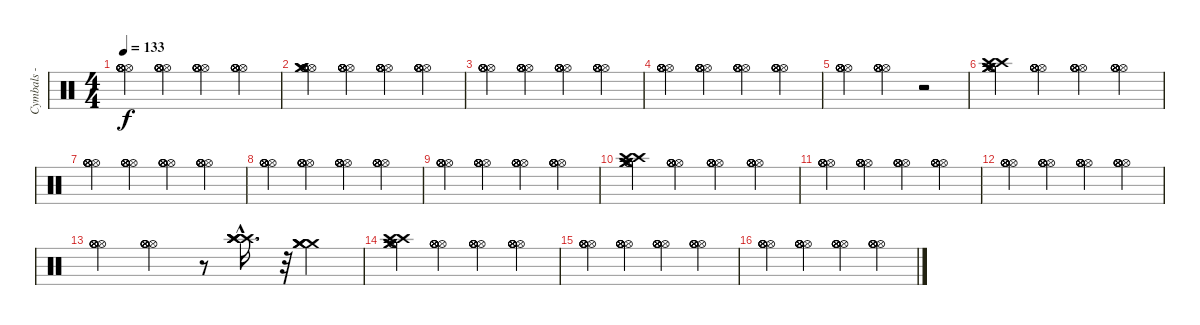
\track ("Cymbals - Joe Daniels" "Cymbals - ") {instrument percussion}
\staff {score}
\articulation defaults
\ts (4 4)
\tempo 133
\clef neutral
\ks c
("Hi-Hat (open)" "Hi-Hat (open)" "Hi-Hat (open)" "Hi-Hat (open)" "Hi-Hat (open)" "Hi-Hat (open)").4{dy f} ("Hi-Hat (open)" "Hi-Hat (open)" "Hi-Hat (open)" "Hi-Hat (open)" "Hi-Hat (open)" "Hi-Hat (open)").4 ("Hi-Hat (open)" "Hi-Hat (open)" "Hi-Hat (open)" "Hi-Hat (open)" "Hi-Hat (open)" "Hi-Hat (open)").4 ("Hi-Hat (open)" "Hi-Hat (open)" "Hi-Hat (open)" "Hi-Hat (open)" "Hi-Hat (open)" "Hi-Hat (open)").4 |
("Hi-Hat (open)" "Crash medium (hit)" "Crash medium (hit)" "Hi-Hat (open)" "Hi-Hat (open)" "Hi-Hat (open)").4 ("Hi-Hat (open)" "Hi-Hat (open)" "Hi-Hat (open)" "Hi-Hat (open)" "Hi-Hat (open)" "Hi-Hat (open)").4 ("Hi-Hat (open)" "Hi-Hat (open)" "Hi-Hat (open)" "Hi-Hat (open)" "Hi-Hat (open)" "Hi-Hat (open)").4 ("Hi-Hat (open)" "Hi-Hat (open)" "Hi-Hat (open)" "Hi-Hat (open)" "Hi-Hat (open)" "Hi-Hat (open)").4 |
("Hi-Hat (open)" "Hi-Hat (open)" "Hi-Hat (open)" "Hi-Hat (open)" "Hi-Hat (open)" "Hi-Hat (open)").4 ("Hi-Hat (open)" "Hi-Hat (open)" "Hi-Hat (open)" "Hi-Hat (open)" "Hi-Hat (open)" "Hi-Hat (open)").4 ("Hi-Hat (open)" "Hi-Hat (open)" "Hi-Hat (open)" "Hi-Hat (open)" "Hi-Hat (open)" "Hi-Hat (open)").4 ("Hi-Hat (open)" "Hi-Hat (open)" "Hi-Hat (open)" "Hi-Hat (open)" "Hi-Hat (open)" "Hi-Hat (open)").4 |
("Hi-Hat (open)" "Hi-Hat (open)" "Hi-Hat (open)" "Hi-Hat (open)" "Hi-Hat (open)" "Hi-Hat (open)").4 ("Hi-Hat (open)" "Hi-Hat (open)" "Hi-Hat (open)" "Hi-Hat (open)" "Hi-Hat (open)" "Hi-Hat (open)").4 ("Hi-Hat (open)" "Hi-Hat (open)" "Hi-Hat (open)" "Hi-Hat (open)" "Hi-Hat (open)" "Hi-Hat (open)").4 ("Hi-Hat (open)" "Hi-Hat (open)" "Hi-Hat (open)" "Hi-Hat (open)" "Hi-Hat (open)" "Hi-Hat (open)").4 |
("Hi-Hat (open)" "Hi-Hat (open)" "Hi-Hat (open)" "Hi-Hat (open)" "Hi-Hat (open)" "Hi-Hat (open)").4 ("Hi-Hat (open)" "Hi-Hat (open)" "Hi-Hat (open)" "Hi-Hat (open)" "Hi-Hat (open)" "Hi-Hat (open)").4 r.2 |
("Hi-Hat (open)" "Crash medium (hit)" "Crash medium (hit)" "Crash high (hit)" "Crash high (hit)" "Hi-Hat (open)").4 ("Hi-Hat (open)" "Hi-Hat (open)" "Hi-Hat (open)" "Hi-Hat (open)" "Hi-Hat (open)" "Hi-Hat (open)").4 ("Hi-Hat (open)" "Hi-Hat (open)" "Hi-Hat (open)" "Hi-Hat (open)" "Hi-Hat (open)" "Hi-Hat (open)").4 ("Hi-Hat (open)" "Hi-Hat (open)" "Hi-Hat (open)" "Hi-Hat (open)" "Hi-Hat (open)" "Hi-Hat (open)").4 |
("Hi-Hat (open)" "Hi-Hat (open)" "Hi-Hat (open)" "Hi-Hat (open)" "Hi-Hat (open)" "Hi-Hat (open)").4 ("Hi-Hat (open)" "Hi-Hat (open)" "Hi-Hat (open)" "Hi-Hat (open)" "Hi-Hat (open)" "Hi-Hat (open)").4 ("Hi-Hat (open)" "Hi-Hat (open)" "Hi-Hat (open)" "Hi-Hat (open)" "Hi-Hat (open)" "Hi-Hat (open)").4 ("Hi-Hat (open)" "Hi-Hat (open)" "Hi-Hat (open)" "Hi-Hat (open)" "Hi-Hat (open)" "Hi-Hat (open)").4 |
("Hi-Hat (open)" "Hi-Hat (open)" "Hi-Hat (open)" "Hi-Hat (open)" "Hi-Hat (open)" "Hi-Hat (open)").4 ("Hi-Hat (open)" "Hi-Hat (open)" "Hi-Hat (open)" "Hi-Hat (open)" "Hi-Hat (open)" "Hi-Hat (open)").4 ("Hi-Hat (open)" "Hi-Hat (open)" "Hi-Hat (open)" "Hi-Hat (open)" "Hi-Hat (open)" "Hi-Hat (open)").4 ("Hi-Hat (open)" "Hi-Hat (open)" "Hi-Hat (open)" "Hi-Hat (open)" "Hi-Hat (open)" "Hi-Hat (open)").4 |
("Hi-Hat (open)" "Hi-Hat (open)" "Hi-Hat (open)" "Hi-Hat (open)" "Hi-Hat (open)" "Hi-Hat (open)").4 ("Hi-Hat (open)" "Hi-Hat (open)" "Hi-Hat (open)" "Hi-Hat (open)" "Hi-Hat (open)" "Hi-Hat (open)").4 ("Hi-Hat (open)" "Hi-Hat (open)" "Hi-Hat (open)" "Hi-Hat (open)" "Hi-Hat (open)" "Hi-Hat (open)").4 ("Hi-Hat (open)" "Hi-Hat (open)" "Hi-Hat (open)" "Hi-Hat (open)" "Hi-Hat (open)" "Hi-Hat (open)").4 |
("Hi-Hat (open)" "Crash medium (hit)" "Crash medium (hit)" "Crash high (hit)" "Crash high (hit)" "Hi-Hat (open)").4 ("Hi-Hat (open)" "Hi-Hat (open)" "Hi-Hat (open)" "Hi-Hat (open)" "Hi-Hat (open)" "Hi-Hat (open)").4 ("Hi-Hat (open)" "Hi-Hat (open)" "Hi-Hat (open)" "Hi-Hat (open)" "Hi-Hat (open)" "Hi-Hat (open)").4 ("Hi-Hat (open)" "Hi-Hat (open)" "Hi-Hat (open)" "Hi-Hat (open)" "Hi-Hat (open)" "Hi-Hat (open)").4 |
("Hi-Hat (open)" "Hi-Hat (open)" "Hi-Hat (open)" "Hi-Hat (open)" "Hi-Hat (open)" "Hi-Hat (open)").4 ("Hi-Hat (open)" "Hi-Hat (open)" "Hi-Hat (open)" "Hi-Hat (open)" "Hi-Hat (open)" "Hi-Hat (open)").4 ("Hi-Hat (open)" "Hi-Hat (open)" "Hi-Hat (open)" "Hi-Hat (open)" "Hi-Hat (open)" "Hi-Hat (open)").4 ("Hi-Hat (open)" "Hi-Hat (open)" "Hi-Hat (open)" "Hi-Hat (open)" "Hi-Hat (open)" "Hi-Hat (open)").4 |
("Hi-Hat (open)" "Hi-Hat (open)" "Hi-Hat (open)" "Hi-Hat (open)" "Hi-Hat (open)" "Hi-Hat (open)").4 ("Hi-Hat (open)" "Hi-Hat (open)" "Hi-Hat (open)" "Hi-Hat (open)" "Hi-Hat (open)" "Hi-Hat (open)").4 ("Hi-Hat (open)" "Hi-Hat (open)" "Hi-Hat (open)" "Hi-Hat (open)" "Hi-Hat (open)" "Hi-Hat (open)").4 ("Hi-Hat (open)" "Hi-Hat (open)" "Hi-Hat (open)" "Hi-Hat (open)" "Hi-Hat (open)" "Hi-Hat (open)").4 |
("Hi-Hat (open)" "Hi-Hat (open)" "Hi-Hat (open)" "Hi-Hat (open)" "Hi-Hat (open)" "Hi-Hat (open)").4 ("Hi-Hat (open)" "Hi-Hat (open)" "Hi-Hat (open)" "Hi-Hat (open)" "Hi-Hat (open)" "Hi-Hat (open)").4 r.8 ("Crash high (hit)"{hac} "Crash high (hit)"{hac} "Crash high (hit)"{hac} "Crash high (hit)"{hac}).16{d} r.32 ("Crash medium (hit)" "Crash medium (hit)" "Crash medium (hit)" "Crash medium (hit)").4 |
("Hi-Hat (open)" "Crash medium (hit)" "Crash medium (hit)" "Crash high (hit)" "Crash high (hit)" "Hi-Hat (open)").4 ("Hi-Hat (open)" "Hi-Hat (open)" "Hi-Hat (open)" "Hi-Hat (open)" "Hi-Hat (open)" "Hi-Hat (open)").4 ("Hi-Hat (open)" "Hi-Hat (open)" "Hi-Hat (open)" "Hi-Hat (open)" "Hi-Hat (open)" "Hi-Hat (open)").4 ("Hi-Hat (open)" "Hi-Hat (open)" "Hi-Hat (open)" "Hi-Hat (open)" "Hi-Hat (open)" "Hi-Hat (open)").4 |
("Hi-Hat (open)" "Hi-Hat (open)" "Hi-Hat (open)" "Hi-Hat (open)" "Hi-Hat (open)" "Hi-Hat (open)").4 ("Hi-Hat (open)" "Hi-Hat (open)" "Hi-Hat (open)" "Hi-Hat (open)" "Hi-Hat (open)" "Hi-Hat (open)").4 ("Hi-Hat (open)" "Hi-Hat (open)" "Hi-Hat (open)" "Hi-Hat (open)" "Hi-Hat (open)" "Hi-Hat (open)").4 ("Hi-Hat (open)" "Hi-Hat (open)" "Hi-Hat (open)" "Hi-Hat (open)" "Hi-Hat (open)" "Hi-Hat (open)").4 |
("Hi-Hat (open)" "Hi-Hat (open)" "Hi-Hat (open)" "Hi-Hat (open)" "Hi-Hat (open)" "Hi-Hat (open)").4 ("Hi-Hat (open)" "Hi-Hat (open)" "Hi-Hat (open)" "Hi-Hat (open)" "Hi-Hat (open)" "Hi-Hat (open)").4 ("Hi-Hat (open)" "Hi-Hat (open)" "Hi-Hat (open)" "Hi-Hat (open)" "Hi-Hat (open)" "Hi-Hat (open)").4 ("Hi-Hat (open)" "Hi-Hat (open)" "Hi-Hat (open)" "Hi-Hat (open)" "Hi-Hat (open)" "Hi-Hat (open)").4
